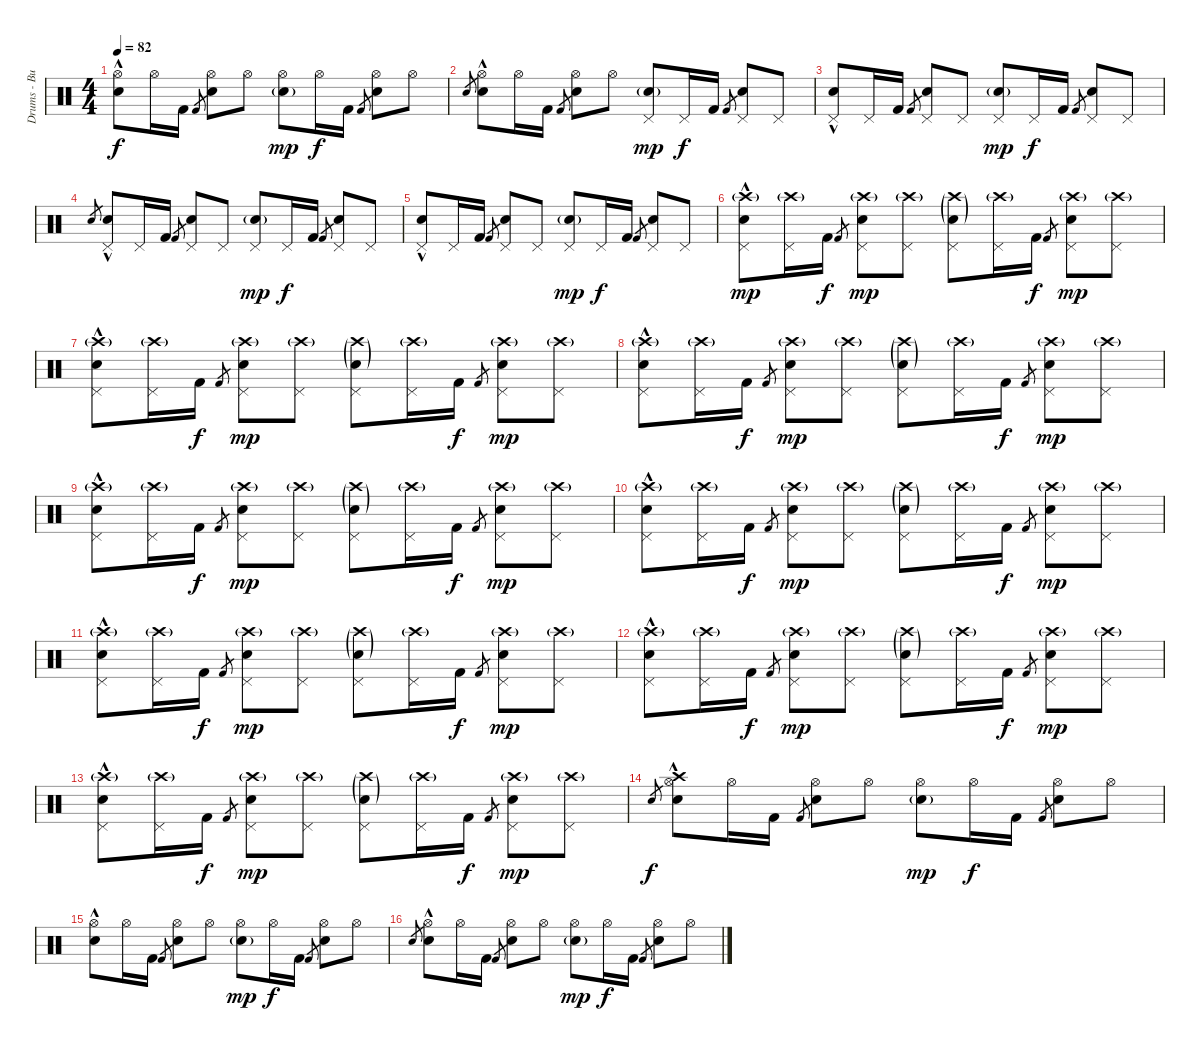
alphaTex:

\track ("Drums - Buddy" "Drums - Bu") {instrument percussion}
\staff {score}
\articulation defaults
\ts (4 4)
\tempo 82
\clef neutral
\ks c
("Electric Snare (hit)" "Hi-Hat (open)"{hac}).8{dy f} "Hi-Hat (open)".16 "Kick (hit) 2".16 "Kick (hit) 2".8{gr} ("Electric Snare (hit)" "Hi-Hat (open)").8 "Hi-Hat (open)".8 ("Electric Snare (hit)"{g} "Hi-Hat (open)").8{dy mp} "Hi-Hat (open)".16{dy f} "Kick (hit) 2".16 "Kick (hit) 2".8{gr} ("Electric Snare (hit)" "Hi-Hat (open)").8 "Hi-Hat (open)".8 |
"Electric Snare (hit)".8{gr} ("Electric Snare (hit)" "Hi-Hat (open)"{hac}).8 "Hi-Hat (open)".16 "Kick (hit) 2".16 "Kick (hit) 2".8{gr} ("Electric Snare (hit)" "Hi-Hat (open)").8 "Hi-Hat (open)".8 ("Electric Snare (hit)"{g} "Pedal Hi-Hat (hit)").8{dy mp} "Pedal Hi-Hat (hit)".16{dy f} "Kick (hit) 2".16 "Kick (hit) 2".8{gr} ("Electric Snare (hit)" "Pedal Hi-Hat (hit)").8 "Pedal Hi-Hat (hit)".8 |
("Electric Snare (hit)" "Pedal Hi-Hat (hit)"{hac}).8 "Pedal Hi-Hat (hit)".16 "Kick (hit) 2".16 "Kick (hit) 2".8{gr} ("Electric Snare (hit)" "Pedal Hi-Hat (hit)").8 "Pedal Hi-Hat (hit)".8 ("Electric Snare (hit)"{g} "Pedal Hi-Hat (hit)").8{dy mp} "Pedal Hi-Hat (hit)".16{dy f} "Kick (hit) 2".16 "Kick (hit) 2".8{gr} ("Electric Snare (hit)" "Pedal Hi-Hat (hit)").8 "Pedal Hi-Hat (hit)".8 |
"Electric Snare (hit)".8{gr} ("Electric Snare (hit)" "Pedal Hi-Hat (hit)"{hac}).8 "Pedal Hi-Hat (hit)".16 "Kick (hit) 2".16 "Kick (hit) 2".8{gr} ("Electric Snare (hit)" "Pedal Hi-Hat (hit)").8 "Pedal Hi-Hat (hit)".8 ("Electric Snare (hit)"{g} "Pedal Hi-Hat (hit)").8{dy mp} "Pedal Hi-Hat (hit)".16{dy f} "Kick (hit) 2".16 "Kick (hit) 2".8{gr} ("Electric Snare (hit)" "Pedal Hi-Hat (hit)").8 "Pedal Hi-Hat (hit)".8 |
("Electric Snare (hit)" "Pedal Hi-Hat (hit)"{hac}).8 "Pedal Hi-Hat (hit)".16 "Kick (hit) 2".16 "Kick (hit) 2".8{gr} ("Electric Snare (hit)" "Pedal Hi-Hat (hit)").8 "Pedal Hi-Hat (hit)".8 ("Electric Snare (hit)"{g} "Pedal Hi-Hat (hit)").8{dy mp} "Pedal Hi-Hat (hit)".16{dy f} "Kick (hit) 2".16 "Kick (hit) 2".8{gr} ("Electric Snare (hit)" "Pedal Hi-Hat (hit)").8 "Pedal Hi-Hat (hit)".8 |
("Crash high (hit)"{g} "Electric Snare (hit)" "Pedal Hi-Hat (hit)"{hac}).8{dy mp volume 13} ("Crash high (hit)"{g} "Pedal Hi-Hat (hit)").16 "Kick (hit) 2".16{dy f} "Kick (hit) 2".8{gr} ("Crash high (hit)"{g} "Electric Snare (hit)" "Pedal Hi-Hat (hit)").8{dy mp} ("Crash high (hit)"{g} "Pedal Hi-Hat (hit)").8 ("Crash high (hit)"{g} "Electric Snare (hit)"{g} "Pedal Hi-Hat (hit)").8 ("Crash high (hit)"{g} "Pedal Hi-Hat (hit)").16 "Kick (hit) 2".16{dy f} "Kick (hit) 2".8{gr} ("Crash high (hit)"{g} "Electric Snare (hit)" "Pedal Hi-Hat (hit)").8{dy mp} ("Crash high (hit)"{g} "Pedal Hi-Hat (hit)").8 |
("Crash high (hit)"{g} "Electric Snare (hit)" "Pedal Hi-Hat (hit)"{hac}).8 ("Crash high (hit)"{g} "Pedal Hi-Hat (hit)").16 "Kick (hit) 2".16{dy f} "Kick (hit) 2".8{gr} ("Crash high (hit)"{g} "Electric Snare (hit)" "Pedal Hi-Hat (hit)").8{dy mp} ("Crash high (hit)"{g} "Pedal Hi-Hat (hit)").8 ("Crash high (hit)"{g} "Electric Snare (hit)"{g} "Pedal Hi-Hat (hit)").8 ("Crash high (hit)"{g} "Pedal Hi-Hat (hit)").16 "Kick (hit) 2".16{dy f} "Kick (hit) 2".8{gr} ("Crash high (hit)"{g} "Electric Snare (hit)" "Pedal Hi-Hat (hit)").8{dy mp} ("Crash high (hit)"{g} "Pedal Hi-Hat (hit)").8 |
("Crash high (hit)"{g} "Electric Snare (hit)" "Pedal Hi-Hat (hit)"{hac}).8 ("Crash high (hit)"{g} "Pedal Hi-Hat (hit)").16 "Kick (hit) 2".16{dy f} "Kick (hit) 2".8{gr} ("Crash high (hit)"{g} "Electric Snare (hit)" "Pedal Hi-Hat (hit)").8{dy mp} ("Crash high (hit)"{g} "Pedal Hi-Hat (hit)").8 ("Crash high (hit)"{g} "Electric Snare (hit)"{g} "Pedal Hi-Hat (hit)").8 ("Crash high (hit)"{g} "Pedal Hi-Hat (hit)").16 "Kick (hit) 2".16{dy f} "Kick (hit) 2".8{gr} ("Crash high (hit)"{g} "Electric Snare (hit)" "Pedal Hi-Hat (hit)").8{dy mp} ("Crash high (hit)"{g} "Pedal Hi-Hat (hit)").8 |
("Crash high (hit)"{g} "Electric Snare (hit)" "Pedal Hi-Hat (hit)"{hac}).8 ("Crash high (hit)"{g} "Pedal Hi-Hat (hit)").16 "Kick (hit) 2".16{dy f} "Kick (hit) 2".8{gr} ("Crash high (hit)"{g} "Electric Snare (hit)" "Pedal Hi-Hat (hit)").8{dy mp} ("Crash high (hit)"{g} "Pedal Hi-Hat (hit)").8 ("Crash high (hit)"{g} "Electric Snare (hit)"{g} "Pedal Hi-Hat (hit)").8 ("Crash high (hit)"{g} "Pedal Hi-Hat (hit)").16 "Kick (hit) 2".16{dy f} "Kick (hit) 2".8{gr} ("Crash high (hit)"{g} "Electric Snare (hit)" "Pedal Hi-Hat (hit)").8{dy mp} ("Crash high (hit)"{g} "Pedal Hi-Hat (hit)").8 |
("Crash high (hit)"{g} "Electric Snare (hit)" "Pedal Hi-Hat (hit)"{hac}).8 ("Crash high (hit)"{g} "Pedal Hi-Hat (hit)").16 "Kick (hit) 2".16{dy f} "Kick (hit) 2".8{gr} ("Crash high (hit)"{g} "Electric Snare (hit)" "Pedal Hi-Hat (hit)").8{dy mp} ("Crash high (hit)"{g} "Pedal Hi-Hat (hit)").8 ("Crash high (hit)"{g} "Electric Snare (hit)"{g} "Pedal Hi-Hat (hit)").8 ("Crash high (hit)"{g} "Pedal Hi-Hat (hit)").16 "Kick (hit) 2".16{dy f} "Kick (hit) 2".8{gr} ("Crash high (hit)"{g} "Electric Snare (hit)" "Pedal Hi-Hat (hit)").8{dy mp} ("Crash high (hit)"{g} "Pedal Hi-Hat (hit)").8 |
("Crash high (hit)"{g} "Electric Snare (hit)" "Pedal Hi-Hat (hit)"{hac}).8 ("Crash high (hit)"{g} "Pedal Hi-Hat (hit)").16 "Kick (hit) 2".16{dy f} "Kick (hit) 2".8{gr} ("Crash high (hit)"{g} "Electric Snare (hit)" "Pedal Hi-Hat (hit)").8{dy mp} ("Crash high (hit)"{g} "Pedal Hi-Hat (hit)").8 ("Crash high (hit)"{g} "Electric Snare (hit)"{g} "Pedal Hi-Hat (hit)").8 ("Crash high (hit)"{g} "Pedal Hi-Hat (hit)").16 "Kick (hit) 2".16{dy f} "Kick (hit) 2".8{gr} ("Crash high (hit)"{g} "Electric Snare (hit)" "Pedal Hi-Hat (hit)").8{dy mp} ("Crash high (hit)"{g} "Pedal Hi-Hat (hit)").8 |
("Crash high (hit)"{g} "Electric Snare (hit)" "Pedal Hi-Hat (hit)"{hac}).8 ("Crash high (hit)"{g} "Pedal Hi-Hat (hit)").16 "Kick (hit) 2".16{dy f} "Kick (hit) 2".8{gr} ("Crash high (hit)"{g} "Electric Snare (hit)" "Pedal Hi-Hat (hit)").8{dy mp} ("Crash high (hit)"{g} "Pedal Hi-Hat (hit)").8 ("Crash high (hit)"{g} "Electric Snare (hit)"{g} "Pedal Hi-Hat (hit)").8 ("Crash high (hit)"{g} "Pedal Hi-Hat (hit)").16 "Kick (hit) 2".16{dy f} "Kick (hit) 2".8{gr} ("Crash high (hit)"{g} "Electric Snare (hit)" "Pedal Hi-Hat (hit)").8{dy mp} ("Crash high (hit)"{g} "Pedal Hi-Hat (hit)").8 |
("Crash high (hit)"{g} "Electric Snare (hit)" "Pedal Hi-Hat (hit)"{hac}).8 ("Crash high (hit)"{g} "Pedal Hi-Hat (hit)").16 "Kick (hit) 2".16{dy f} "Kick (hit) 2".8{gr} ("Crash high (hit)"{g} "Electric Snare (hit)" "Pedal Hi-Hat (hit)").8{dy mp} ("Crash high (hit)"{g} "Pedal Hi-Hat (hit)").8 ("Crash high (hit)"{g} "Electric Snare (hit)"{g} "Pedal Hi-Hat (hit)").8 ("Crash high (hit)"{g} "Pedal Hi-Hat (hit)").16 "Kick (hit) 2".16{dy f} "Kick (hit) 2".8{gr} ("Crash high (hit)"{g} "Electric Snare (hit)" "Pedal Hi-Hat (hit)").8{dy mp} ("Crash high (hit)"{g} "Pedal Hi-Hat (hit)").8 |
"Electric Snare (hit)".8{gr dy f} ("Crash high (hit)" "Electric Snare (hit)" "Hi-Hat (open)"{hac}).8 "Hi-Hat (open)".16 "Kick (hit) 2".16 "Kick (hit) 2".8{gr} ("Electric Snare (hit)" "Hi-Hat (open)").8 "Hi-Hat (open)".8 ("Electric Snare (hit)"{g} "Hi-Hat (open)").8{dy mp} "Hi-Hat (open)".16{dy f} "Kick (hit) 2".16 "Kick (hit) 2".8{gr} ("Electric Snare (hit)" "Hi-Hat (open)").8 "Hi-Hat (open)".8 |
("Electric Snare (hit)" "Hi-Hat (open)"{hac}).8 "Hi-Hat (open)".16 "Kick (hit) 2".16 "Kick (hit) 2".8{gr} ("Electric Snare (hit)" "Hi-Hat (open)").8 "Hi-Hat (open)".8 ("Electric Snare (hit)"{g} "Hi-Hat (open)").8{dy mp} "Hi-Hat (open)".16{dy f} "Kick (hit) 2".16 "Kick (hit) 2".8{gr} ("Electric Snare (hit)" "Hi-Hat (open)").8 "Hi-Hat (open)".8 |
"Electric Snare (hit)".8{gr} ("Electric Snare (hit)" "Hi-Hat (open)"{hac}).8 "Hi-Hat (open)".16 "Kick (hit) 2".16 "Kick (hit) 2".8{gr} ("Electric Snare (hit)" "Hi-Hat (open)").8 "Hi-Hat (open)".8 ("Electric Snare (hit)"{g} "Hi-Hat (open)").8{dy mp} "Hi-Hat (open)".16{dy f} "Kick (hit) 2".16 "Kick (hit) 2".8{gr} ("Electric Snare (hit)" "Hi-Hat (open)").8 "Hi-Hat (open)".8
